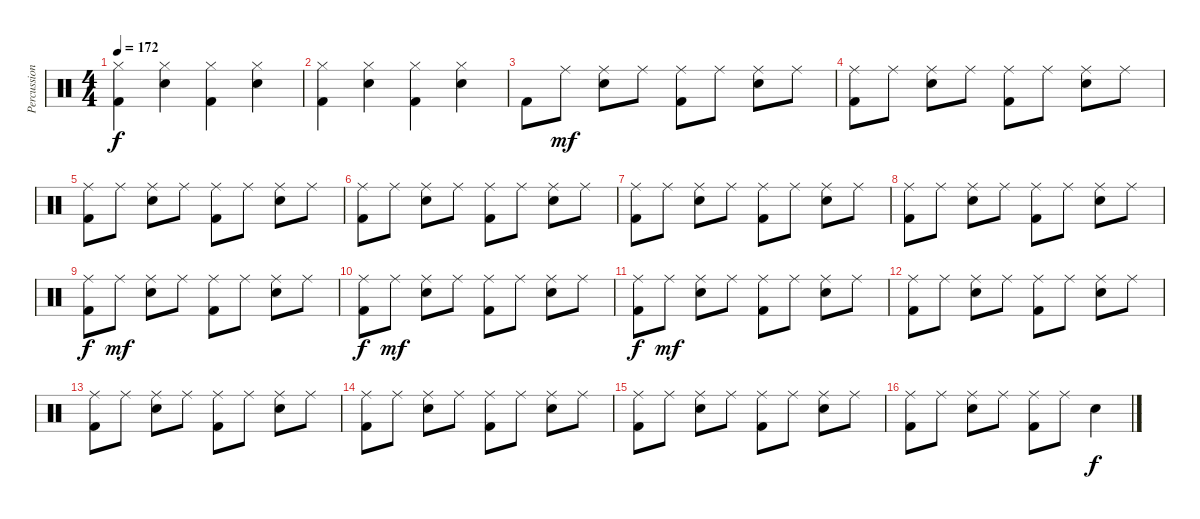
\track ("Percussion" "Percussion") {instrument percussion}
\staff {score}
\articulation defaults
\ts (4 4)
\tempo 172
\clef neutral
\ks c
("Hi-Hat (closed)" "Kick (hit) 2").4{dy f} ("Hi-Hat (closed)" "Snare (hit) 2").4 ("Hi-Hat (closed)" "Kick (hit) 2").4 ("Hi-Hat (closed)" "Snare (hit) 2").4 |
("Hi-Hat (closed)" "Kick (hit) 2").4 ("Hi-Hat (closed)" "Snare (hit) 2").4 ("Hi-Hat (closed)" "Kick (hit) 2").4 ("Hi-Hat (closed)" "Snare (hit) 2").4 |
"Kick (hit) 2".8 "Ride (middle)".8{dy mf} ("Ride (middle)" "Snare (hit) 2").8 "Ride (middle)".8 ("Ride (middle)" "Kick (hit) 2").8 "Ride (middle)".8 ("Ride (middle)" "Snare (hit) 2").8 "Ride (middle)".8 |
("Ride (middle)" "Kick (hit) 2").8 "Ride (middle)".8 ("Ride (middle)" "Snare (hit) 2").8 "Ride (middle)".8 ("Ride (middle)" "Kick (hit) 2").8 "Ride (middle)".8 ("Ride (middle)" "Snare (hit) 2").8 "Ride (middle)".8 |
("Ride (middle)" "Kick (hit) 2").8 "Ride (middle)".8 ("Ride (middle)" "Snare (hit) 2").8 "Ride (middle)".8 ("Ride (middle)" "Kick (hit) 2").8 "Ride (middle)".8 ("Ride (middle)" "Snare (hit) 2").8 "Ride (middle)".8 |
("Ride (middle)" "Kick (hit) 2").8 "Ride (middle)".8 ("Ride (middle)" "Snare (hit) 2").8 "Ride (middle)".8 ("Ride (middle)" "Kick (hit) 2").8 "Ride (middle)".8 ("Ride (middle)" "Snare (hit) 2").8 "Ride (middle)".8 |
("Ride (middle)" "Kick (hit) 2").8 "Ride (middle)".8 ("Ride (middle)" "Snare (hit) 2").8 "Ride (middle)".8 ("Ride (middle)" "Kick (hit) 2").8 "Ride (middle)".8 ("Ride (middle)" "Snare (hit) 2").8 "Ride (middle)".8 |
("Ride (middle)" "Kick (hit) 2").8 "Ride (middle)".8 ("Ride (middle)" "Snare (hit) 2").8 "Ride (middle)".8 ("Ride (middle)" "Kick (hit) 2").8 "Ride (middle)".8 ("Ride (middle)" "Snare (hit) 2").8 "Ride (middle)".8 |
("Ride (middle)" "Kick (hit) 2").8{dy f} "Ride (middle)".8{dy mf} ("Ride (middle)" "Snare (hit) 2").8 "Ride (middle)".8 ("Ride (middle)" "Kick (hit) 2").8 "Ride (middle)".8 ("Ride (middle)" "Snare (hit) 2").8 "Ride (middle)".8 |
("Ride (middle)" "Kick (hit) 2").8{dy f} "Ride (middle)".8{dy mf} ("Ride (middle)" "Snare (hit) 2").8 "Ride (middle)".8 ("Ride (middle)" "Kick (hit) 2").8 "Ride (middle)".8 ("Ride (middle)" "Snare (hit) 2").8 "Ride (middle)".8 |
("Ride (middle)" "Kick (hit) 2").8{dy f} "Ride (middle)".8{dy mf} ("Ride (middle)" "Snare (hit) 2").8 "Ride (middle)".8 ("Ride (middle)" "Kick (hit) 2").8 "Ride (middle)".8 ("Ride (middle)" "Snare (hit) 2").8 "Ride (middle)".8 |
("Ride (middle)" "Kick (hit) 2").8 "Ride (middle)".8 ("Ride (middle)" "Snare (hit) 2").8 "Ride (middle)".8 ("Ride (middle)" "Kick (hit) 2").8 "Ride (middle)".8 ("Ride (middle)" "Snare (hit) 2").8 "Ride (middle)".8 |
("Ride (middle)" "Kick (hit) 2").8 "Ride (middle)".8 ("Ride (middle)" "Snare (hit) 2").8 "Ride (middle)".8 ("Ride (middle)" "Kick (hit) 2").8 "Ride (middle)".8 ("Ride (middle)" "Snare (hit) 2").8 "Ride (middle)".8 |
("Ride (middle)" "Kick (hit) 2").8 "Ride (middle)".8 ("Ride (middle)" "Snare (hit) 2").8 "Ride (middle)".8 ("Ride (middle)" "Kick (hit) 2").8 "Ride (middle)".8 ("Ride (middle)" "Snare (hit) 2").8 "Ride (middle)".8 |
("Ride (middle)" "Kick (hit) 2").8 "Ride (middle)".8 ("Ride (middle)" "Snare (hit) 2").8 "Ride (middle)".8 ("Ride (middle)" "Kick (hit) 2").8 "Ride (middle)".8 ("Ride (middle)" "Snare (hit) 2").8 "Ride (middle)".8 |
("Ride (middle)" "Kick (hit) 2").8 "Ride (middle)".8 ("Ride (middle)" "Snare (hit) 2").8 "Ride (middle)".8 ("Ride (middle)" "Kick (hit) 2").8 "Ride (middle)".8 "Snare (hit) 2".4{dy f}
